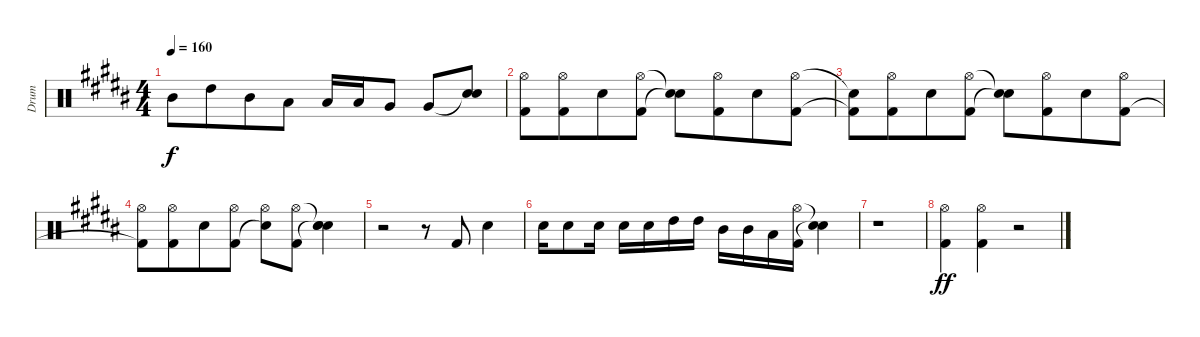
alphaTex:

\track ("Drum" "Drum") {instrument percussion}
\staff {score}
\articulation defaults
\ts (4 4)
\tempo 160
\clef neutral
\ks b "Mid Tom (hit)".8{dy f} "High Tom (hit)".8{beam merge} "Mid Tom (hit)".8 "Low Tom (hit)".8 "Low Tom (hit)".16 "Low Tom (hit)".16 "Very Low Tom (hit)".8 "Very Low Tom (hit)".8
("Snare (hit)"{t} "Snare (hit) 2").8 |
("Hi-Hat (open)" "Kick (hit) 2").8 ("Hi-Hat (open)" "Kick (hit) 2").8{beam merge} "Snare (hit) 2".8 ("Hi-Hat (open)" "Kick (hit) 2").8 ("Snare (hit)"{t} "Snare (hit)"{t}).8 ("Hi-Hat (open)" "Kick (hit) 2").8{beam merge} "Snare (hit) 2".8 ("Hi-Hat (open)" "Kick (hit) 2").8 |
("Snare (hit)"{t} "Kick (hit) 2"{t}).8 ("Hi-Hat (open)" "Kick (hit) 2").8{beam merge} "Snare (hit) 2".8 ("Hi-Hat (open)" "Kick (hit) 2").8 ("Snare (hit)"{t} "Snare (hit)"{t}).8 ("Hi-Hat (open)" "Kick (hit) 2").8{beam merge} "Snare (hit) 2".8 ("Hi-Hat (open)" "Kick (hit) 2").8 |
("Hi-Hat (open)" "Kick (hit) 2"{t}).8 ("Hi-Hat (open)" "Kick (hit) 2").8{beam merge} "Snare (hit) 2".8 ("Hi-Hat (open)" "Kick (hit) 2").8 ("Hi-Hat (open)" "Snare (hit)"{t}).8 ("Hi-Hat (open)" "Kick (hit) 2").8 ("Snare (hit)"{t} "Snare (hit)"{t} "Snare (hit)").4 |
r.2 r.8 "Kick (hit) 2".8 "Snare (hit) 2".4 |
"Snare (hit) 2".16 "Snare (hit) 2".8 "Snare (hit) 2".16 "Snare (hit) 2".16 "Snare (hit) 2".16 "High Tom (hit)".16 "High Tom (hit)".16 "Mid Tom (hit)".16 "Mid Tom (hit)".16 "Low Tom (hit)".16 ("Hi-Hat (open)" "Kick (hit) 2").16 ("Snare (hit)"{t} "Snare (hit)"{t}).4 |
r.1 |
("Hi-Hat (open)" "Kick (hit) 2").4{dy ff} ("Hi-Hat (open)" "Kick (hit) 2").4 r.2
